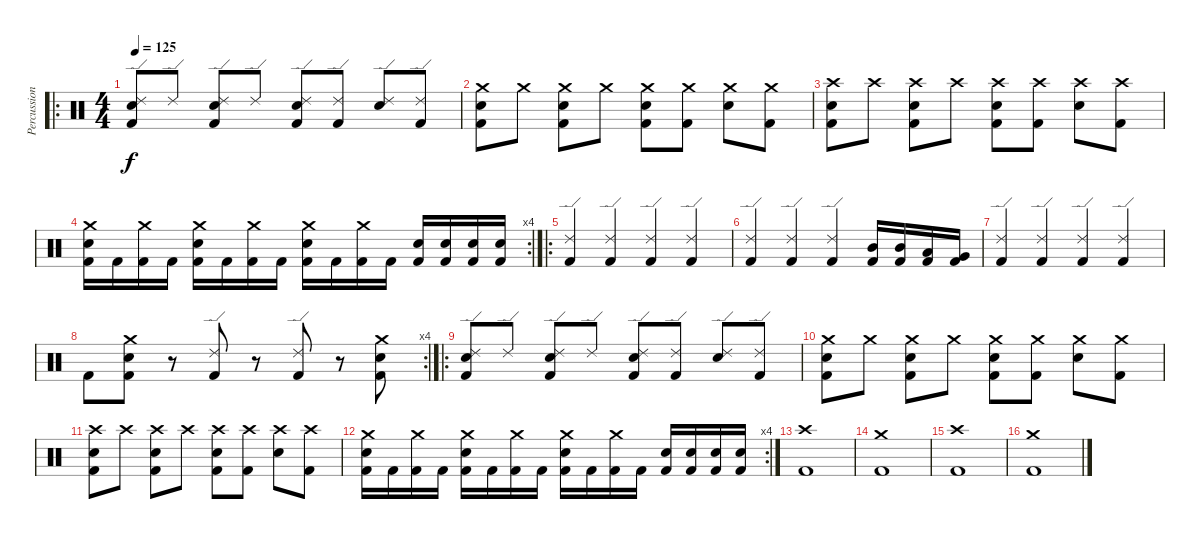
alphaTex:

\track ("Percussion" "Percussion") {instrument percussion}
\staff {score}
\articulation defaults
\ro
\ts (4 4)
\tempo 125
\clef neutral
\ks c
("Ride (edge) 2" "Snare (hit) 2" "Kick (hit) 2").8{dy f} "Ride (edge) 2".8 ("Ride (edge) 2" "Snare (hit) 2" "Kick (hit) 2").8 "Ride (edge) 2".8 ("Ride (edge) 2" "Snare (hit) 2" "Kick (hit) 2").8 ("Ride (edge) 2" "Kick (hit) 2").8 ("Ride (edge) 2" "Snare (hit) 2").8 ("Ride (edge) 2" "Kick (hit) 2").8 |
("Crash medium (hit)" "Snare (hit) 2" "Kick (hit) 2").8 "Crash medium (hit)".8 ("Crash medium (hit)" "Snare (hit) 2" "Kick (hit) 2").8 "Crash medium (hit)".8 ("Crash medium (hit)" "Snare (hit) 2" "Kick (hit) 2").8 ("Crash medium (hit)" "Kick (hit) 2").8 ("Crash medium (hit)" "Snare (hit) 2").8 ("Crash medium (hit)" "Kick (hit) 2").8 |
("Crash high (hit)" "Snare (hit) 2" "Kick (hit) 2").8 "Crash high (hit)".8 ("Crash high (hit)" "Snare (hit) 2" "Kick (hit) 2").8 "Crash high (hit)".8 ("Crash high (hit)" "Snare (hit) 2" "Kick (hit) 2").8 ("Crash high (hit)" "Kick (hit) 2").8 ("Crash high (hit)" "Snare (hit) 2").8 ("Crash high (hit)" "Kick (hit) 2").8 |
\rc 4
("Crash medium (hit)" "Snare (hit) 2" "Kick (hit) 2").16 "Kick (hit) 2".16 ("Crash medium (hit)" "Kick (hit) 2").16 "Kick (hit) 2".16 ("Crash medium (hit)" "Snare (hit) 2" "Kick (hit) 2").16 "Kick (hit) 2".16 ("Crash medium (hit)" "Kick (hit) 2").16 "Kick (hit) 2".16 ("Crash medium (hit)" "Snare (hit) 2" "Kick (hit) 2").16 "Kick (hit) 2".16 ("Crash medium (hit)" "Kick (hit) 2").16 "Kick (hit) 2".16 ("Snare (hit) 2" "Kick (hit) 2").16 ("Snare (hit) 2" "Kick (hit) 2").16 ("Snare (hit) 2" "Kick (hit) 2").16 ("Snare (hit) 2" "Kick (hit) 2").16 |
\ro
("Ride (edge) 2" "Kick (hit) 2").4 ("Ride (edge) 2" "Kick (hit) 2").4 ("Ride (edge) 2" "Kick (hit) 2").4 ("Ride (edge) 2" "Kick (hit) 2").4 |
("Ride (edge) 2" "Kick (hit) 2").4 ("Ride (edge) 2" "Kick (hit) 2").4 ("Ride (edge) 2" "Kick (hit) 2").4 ("Mid Tom (hit)" "Kick (hit) 2").16 ("Mid Tom (hit)" "Kick (hit) 2").16 ("Low Tom (hit)" "Kick (hit) 2").16 ("Very Low Tom (hit)" "Kick (hit) 2").16 |
("Ride (edge) 2" "Kick (hit) 2").4 ("Ride (edge) 2" "Kick (hit) 2").4 ("Ride (edge) 2" "Kick (hit) 2").4 ("Ride (edge) 2" "Kick (hit) 2").4 |
\rc 4 "Kick (hit) 2".8
("Crash medium (hit)" "Snare (hit) 2" "Kick (hit) 2").8 r.8 ("Ride (edge) 2" "Kick (hit) 2").8 r.8 ("Ride (edge) 2" "Kick (hit) 2").8 r.8 ("Crash medium (hit)" "Snare (hit) 2" "Kick (hit) 2").8 |
\ro
("Ride (edge) 2" "Snare (hit) 2" "Kick (hit) 2").8 "Ride (edge) 2".8 ("Ride (edge) 2" "Snare (hit) 2" "Kick (hit) 2").8 "Ride (edge) 2".8 ("Ride (edge) 2" "Snare (hit) 2" "Kick (hit) 2").8 ("Ride (edge) 2" "Kick (hit) 2").8 ("Ride (edge) 2" "Snare (hit) 2").8 ("Ride (edge) 2" "Kick (hit) 2").8 |
("Crash medium (hit)" "Snare (hit) 2" "Kick (hit) 2").8 "Crash medium (hit)".8 ("Crash medium (hit)" "Snare (hit) 2" "Kick (hit) 2").8 "Crash medium (hit)".8 ("Crash medium (hit)" "Snare (hit) 2" "Kick (hit) 2").8 ("Crash medium (hit)" "Kick (hit) 2").8 ("Crash medium (hit)" "Snare (hit) 2").8 ("Crash medium (hit)" "Kick (hit) 2").8 |
("Crash high (hit)" "Snare (hit) 2" "Kick (hit) 2").8 "Crash high (hit)".8 ("Crash high (hit)" "Snare (hit) 2" "Kick (hit) 2").8 "Crash high (hit)".8 ("Crash high (hit)" "Snare (hit) 2" "Kick (hit) 2").8 ("Crash high (hit)" "Kick (hit) 2").8 ("Crash high (hit)" "Snare (hit) 2").8 ("Crash high (hit)" "Kick (hit) 2").8 |
\rc 4
("Crash medium (hit)" "Snare (hit) 2" "Kick (hit) 2").16 "Kick (hit) 2".16 ("Crash medium (hit)" "Kick (hit) 2").16 "Kick (hit) 2".16 ("Crash medium (hit)" "Snare (hit) 2" "Kick (hit) 2").16 "Kick (hit) 2".16 ("Crash medium (hit)" "Kick (hit) 2").16 "Kick (hit) 2".16 ("Crash medium (hit)" "Snare (hit) 2" "Kick (hit) 2").16 "Kick (hit) 2".16 ("Crash medium (hit)" "Kick (hit) 2").16 "Kick (hit) 2".16 ("Snare (hit) 2" "Kick (hit) 2").16 ("Snare (hit) 2" "Kick (hit) 2").16 ("Snare (hit) 2" "Kick (hit) 2").16 ("Snare (hit) 2" "Kick (hit) 2").16 |
("Crash high (hit)" "Kick (hit) 2").1 |
("Crash medium (hit)" "Kick (hit) 2").1 |
("Crash high (hit)" "Kick (hit) 2").1 |
("Crash medium (hit)" "Kick (hit) 2").1
